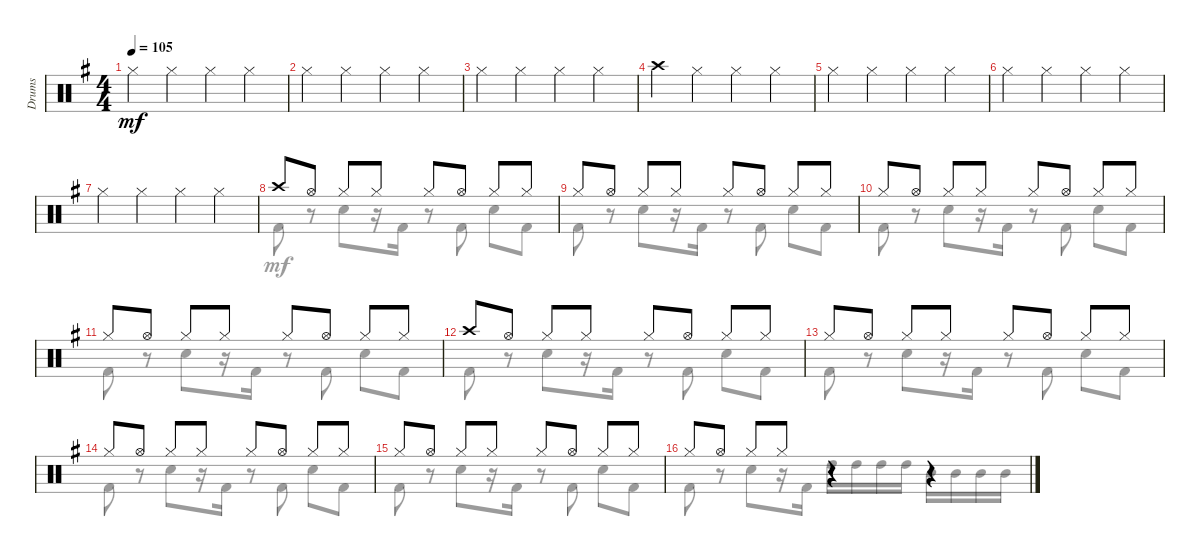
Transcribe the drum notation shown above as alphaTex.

\track ("Drums" "Drums") {instrument percussion}
\staff {score}
\articulation defaults
\voice
\ts (4 4)
\tempo 105
\clef neutral
\ks eminor "Hi-Hat (closed)".4{dy mf} "Hi-Hat (closed)".4 "Hi-Hat (closed)".4 "Hi-Hat (closed)".4
|
"Hi-Hat (closed)".4 "Hi-Hat (closed)".4 "Hi-Hat (closed)".4 "Hi-Hat (closed)".4 |
"Hi-Hat (closed)".4 "Hi-Hat (closed)".4 "Hi-Hat (closed)".4 "Hi-Hat (closed)".4 |
"Crash high (hit)".4 "Hi-Hat (closed)".4 "Hi-Hat (closed)".4 "Hi-Hat (closed)".4 |
"Hi-Hat (closed)".4 "Hi-Hat (closed)".4 "Hi-Hat (closed)".4 "Hi-Hat (closed)".4 |
"Hi-Hat (closed)".4 "Hi-Hat (closed)".4 "Hi-Hat (closed)".4 "Hi-Hat (closed)".4 |
"Hi-Hat (closed)".4 "Hi-Hat (closed)".4 "Hi-Hat (closed)".4 "Hi-Hat (closed)".4 |
"Crash high (hit)".8 "Hi-Hat (open)".8 "Hi-Hat (closed)".8 "Hi-Hat (closed)".8 "Hi-Hat (closed)".8 "Hi-Hat (open)".8 "Hi-Hat (closed)".8 "Hi-Hat (closed)".8 |
"Hi-Hat (closed)".8 "Hi-Hat (open)".8 "Hi-Hat (closed)".8 "Hi-Hat (closed)".8 "Hi-Hat (closed)".8 "Hi-Hat (open)".8 "Hi-Hat (closed)".8 "Hi-Hat (closed)".8 |
"Hi-Hat (closed)".8 "Hi-Hat (open)".8 "Hi-Hat (closed)".8 "Hi-Hat (closed)".8 "Hi-Hat (closed)".8 "Hi-Hat (open)".8 "Hi-Hat (closed)".8 "Hi-Hat (closed)".8 |
"Hi-Hat (closed)".8 "Hi-Hat (open)".8 "Hi-Hat (closed)".8 "Hi-Hat (closed)".8 "Hi-Hat (closed)".8 "Hi-Hat (open)".8 "Hi-Hat (closed)".8 "Hi-Hat (closed)".8 |
"Crash high (hit)".8 "Hi-Hat (open)".8 "Hi-Hat (closed)".8 "Hi-Hat (closed)".8 "Hi-Hat (closed)".8 "Hi-Hat (open)".8 "Hi-Hat (closed)".8 "Hi-Hat (closed)".8 |
"Hi-Hat (closed)".8 "Hi-Hat (open)".8 "Hi-Hat (closed)".8 "Hi-Hat (closed)".8 "Hi-Hat (closed)".8 "Hi-Hat (open)".8 "Hi-Hat (closed)".8 "Hi-Hat (closed)".8 |
"Hi-Hat (closed)".8 "Hi-Hat (open)".8 "Hi-Hat (closed)".8 "Hi-Hat (closed)".8 "Hi-Hat (closed)".8 "Hi-Hat (open)".8 "Hi-Hat (closed)".8 "Hi-Hat (closed)".8 |
"Hi-Hat (closed)".8 "Hi-Hat (open)".8 "Hi-Hat (closed)".8 "Hi-Hat (closed)".8 "Hi-Hat (closed)".8 "Hi-Hat (open)".8 "Hi-Hat (closed)".8 "Hi-Hat (closed)".8 |
"Hi-Hat (closed)".8 "Hi-Hat (open)".8 "Hi-Hat (closed)".8 "Hi-Hat (closed)".8 r.4 r.4
\voice
\clef neutral
\ottava regular
\simile none
\ks eminor
|
|
|
|
|
|
|
"Kick (hit) 2".8 r.8 "Snare (hit) 2".8 r.16 "Kick (hit) 2".16 r.8 "Kick (hit) 2".8 "Snare (hit) 2".8 "Kick (hit) 2".8 |
"Kick (hit) 2".8 r.8 "Snare (hit) 2".8 r.16 "Kick (hit) 2".16 r.8 "Kick (hit) 2".8 "Snare (hit) 2".8 "Kick (hit) 2".8 |
"Kick (hit) 2".8 r.8 "Snare (hit) 2".8 r.16 "Kick (hit) 2".16 r.8 "Kick (hit) 2".8 "Snare (hit) 2".8 "Kick (hit) 2".8 |
"Kick (hit) 2".8 r.8 "Snare (hit) 2".8 r.16 "Kick (hit) 2".16 r.8 "Kick (hit) 2".8 "Snare (hit) 2".8 "Kick (hit) 2".8 |
"Kick (hit) 2".8 r.8 "Snare (hit) 2".8 r.16 "Kick (hit) 2".16 r.8 "Kick (hit) 2".8 "Snare (hit) 2".8 "Kick (hit) 2".8 |
"Kick (hit) 2".8 r.8 "Snare (hit) 2".8 r.16 "Kick (hit) 2".16 r.8 "Kick (hit) 2".8 "Snare (hit) 2".8 "Kick (hit) 2".8 |
"Kick (hit) 2".8 r.8 "Snare (hit) 2".8 r.16 "Kick (hit) 2".16 r.8 "Kick (hit) 2".8 "Snare (hit) 2".8 "Kick (hit) 2".8 |
"Kick (hit) 2".8 r.8 "Snare (hit) 2".8 r.16 "Kick (hit) 2".16 r.8 "Kick (hit) 2".8 "Snare (hit) 2".8 "Kick (hit) 2".8 |
"Kick (hit) 2".8 r.8 "Snare (hit) 2".8 r.16 "Kick (hit) 2".16 "High Tom (hit)".16 "High Tom (hit)".16 "High Tom (hit)".16 "High Tom (hit)".16 "Mid Tom (hit)".16 "Mid Tom (hit)".16 "Mid Tom (hit)".16 "Mid Tom (hit)".16
